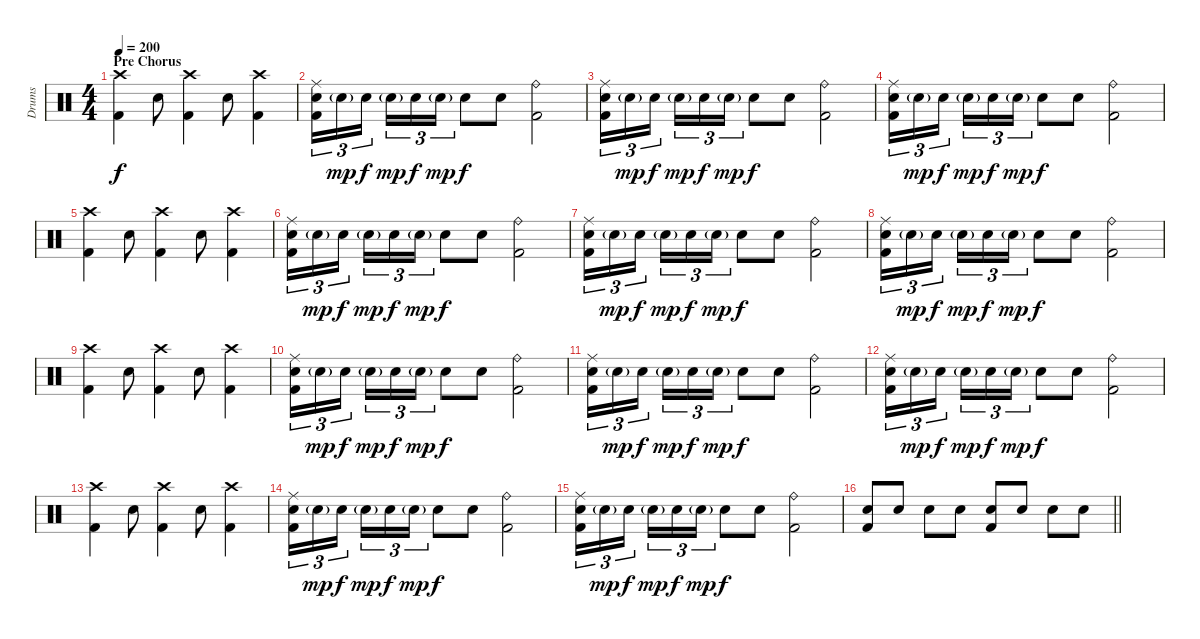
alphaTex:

\track ("Drums" "Drums") {instrument percussion}
\staff {score}
\articulation defaults
\ts (4 4)
\section ("" "Pre Chorus")
\tempo 200
\clef neutral
\ks c
("Crash high (hit)" "Kick (hit) 2").4{dy f} "Electric Snare (hit)".8 ("Crash high (hit)" "Kick (hit) 2").4 "Electric Snare (hit)".8 ("Crash high (hit)" "Kick (hit) 2").4 |
("Ride (middle)" "Electric Snare (hit)" "Kick (hit) 2").16{tu (3 2)} "Electric Snare (hit)"{g}.16{tu (3 2) dy mp} "Electric Snare (hit)".16{tu (3 2) dy f beam splitsecondary} "Electric Snare (hit)"{g}.16{tu (3 2) dy mp} "Electric Snare (hit)".16{tu (3 2) dy f} "Electric Snare (hit)"{g}.16{tu (3 2) dy mp} "Electric Snare (hit)".8{dy f} "Electric Snare (hit)".8 ("Ride (bell)" "Kick (hit) 2").2 |
("Ride (middle)" "Electric Snare (hit)" "Kick (hit) 2").16{tu (3 2)} "Electric Snare (hit)"{g}.16{tu (3 2) dy mp} "Electric Snare (hit)".16{tu (3 2) dy f beam splitsecondary} "Electric Snare (hit)"{g}.16{tu (3 2) dy mp} "Electric Snare (hit)".16{tu (3 2) dy f} "Electric Snare (hit)"{g}.16{tu (3 2) dy mp} "Electric Snare (hit)".8{dy f} "Electric Snare (hit)".8 ("Ride (bell)" "Kick (hit) 2").2 |
("Ride (middle)" "Electric Snare (hit)" "Kick (hit) 2").16{tu (3 2)} "Electric Snare (hit)"{g}.16{tu (3 2) dy mp} "Electric Snare (hit)".16{tu (3 2) dy f beam splitsecondary} "Electric Snare (hit)"{g}.16{tu (3 2) dy mp} "Electric Snare (hit)".16{tu (3 2) dy f} "Electric Snare (hit)"{g}.16{tu (3 2) dy mp} "Electric Snare (hit)".8{dy f} "Electric Snare (hit)".8 ("Ride (bell)" "Kick (hit) 2").2 |
("Crash high (hit)" "Kick (hit) 2").4 "Electric Snare (hit)".8 ("Crash high (hit)" "Kick (hit) 2").4 "Electric Snare (hit)".8 ("Crash high (hit)" "Kick (hit) 2").4 |
("Ride (middle)" "Electric Snare (hit)" "Kick (hit) 2").16{tu (3 2)} "Electric Snare (hit)"{g}.16{tu (3 2) dy mp} "Electric Snare (hit)".16{tu (3 2) dy f beam splitsecondary} "Electric Snare (hit)"{g}.16{tu (3 2) dy mp} "Electric Snare (hit)".16{tu (3 2) dy f} "Electric Snare (hit)"{g}.16{tu (3 2) dy mp} "Electric Snare (hit)".8{dy f} "Electric Snare (hit)".8 ("Ride (bell)" "Kick (hit) 2").2 |
("Ride (middle)" "Electric Snare (hit)" "Kick (hit) 2").16{tu (3 2)} "Electric Snare (hit)"{g}.16{tu (3 2) dy mp} "Electric Snare (hit)".16{tu (3 2) dy f beam splitsecondary} "Electric Snare (hit)"{g}.16{tu (3 2) dy mp} "Electric Snare (hit)".16{tu (3 2) dy f} "Electric Snare (hit)"{g}.16{tu (3 2) dy mp} "Electric Snare (hit)".8{dy f} "Electric Snare (hit)".8 ("Ride (bell)" "Kick (hit) 2").2 |
("Ride (middle)" "Electric Snare (hit)" "Kick (hit) 2").16{tu (3 2)} "Electric Snare (hit)"{g}.16{tu (3 2) dy mp} "Electric Snare (hit)".16{tu (3 2) dy f beam splitsecondary} "Electric Snare (hit)"{g}.16{tu (3 2) dy mp} "Electric Snare (hit)".16{tu (3 2) dy f} "Electric Snare (hit)"{g}.16{tu (3 2) dy mp} "Electric Snare (hit)".8{dy f} "Electric Snare (hit)".8 ("Ride (bell)" "Kick (hit) 2").2 |
("Crash high (hit)" "Kick (hit) 2").4 "Electric Snare (hit)".8 ("Crash high (hit)" "Kick (hit) 2").4 "Electric Snare (hit)".8 ("Crash high (hit)" "Kick (hit) 2").4 |
("Ride (middle)" "Electric Snare (hit)" "Kick (hit) 2").16{tu (3 2)} "Electric Snare (hit)"{g}.16{tu (3 2) dy mp} "Electric Snare (hit)".16{tu (3 2) dy f beam splitsecondary} "Electric Snare (hit)"{g}.16{tu (3 2) dy mp} "Electric Snare (hit)".16{tu (3 2) dy f} "Electric Snare (hit)"{g}.16{tu (3 2) dy mp} "Electric Snare (hit)".8{dy f} "Electric Snare (hit)".8 ("Ride (bell)" "Kick (hit) 2").2 |
("Ride (middle)" "Electric Snare (hit)" "Kick (hit) 2").16{tu (3 2)} "Electric Snare (hit)"{g}.16{tu (3 2) dy mp} "Electric Snare (hit)".16{tu (3 2) dy f beam splitsecondary} "Electric Snare (hit)"{g}.16{tu (3 2) dy mp} "Electric Snare (hit)".16{tu (3 2) dy f} "Electric Snare (hit)"{g}.16{tu (3 2) dy mp} "Electric Snare (hit)".8{dy f} "Electric Snare (hit)".8 ("Ride (bell)" "Kick (hit) 2").2 |
("Ride (middle)" "Electric Snare (hit)" "Kick (hit) 2").16{tu (3 2)} "Electric Snare (hit)"{g}.16{tu (3 2) dy mp} "Electric Snare (hit)".16{tu (3 2) dy f beam splitsecondary} "Electric Snare (hit)"{g}.16{tu (3 2) dy mp} "Electric Snare (hit)".16{tu (3 2) dy f} "Electric Snare (hit)"{g}.16{tu (3 2) dy mp} "Electric Snare (hit)".8{dy f} "Electric Snare (hit)".8 ("Ride (bell)" "Kick (hit) 2").2 |
("Crash high (hit)" "Kick (hit) 2").4 "Electric Snare (hit)".8 ("Crash high (hit)" "Kick (hit) 2").4 "Electric Snare (hit)".8 ("Crash high (hit)" "Kick (hit) 2").4 |
("Ride (middle)" "Electric Snare (hit)" "Kick (hit) 2").16{tu (3 2)} "Electric Snare (hit)"{g}.16{tu (3 2) dy mp} "Electric Snare (hit)".16{tu (3 2) dy f beam splitsecondary} "Electric Snare (hit)"{g}.16{tu (3 2) dy mp} "Electric Snare (hit)".16{tu (3 2) dy f} "Electric Snare (hit)"{g}.16{tu (3 2) dy mp} "Electric Snare (hit)".8{dy f} "Electric Snare (hit)".8 ("Ride (bell)" "Kick (hit) 2").2 |
("Ride (middle)" "Electric Snare (hit)" "Kick (hit) 2").16{tu (3 2)} "Electric Snare (hit)"{g}.16{tu (3 2) dy mp} "Electric Snare (hit)".16{tu (3 2) dy f beam splitsecondary} "Electric Snare (hit)"{g}.16{tu (3 2) dy mp} "Electric Snare (hit)".16{tu (3 2) dy f} "Electric Snare (hit)"{g}.16{tu (3 2) dy mp} "Electric Snare (hit)".8{dy f} "Electric Snare (hit)".8 ("Ride (bell)" "Kick (hit) 2").2 |
\barLineRight lightlight
("Electric Snare (hit)" "Kick (hit) 2").8 "Electric Snare (hit)".8 "Electric Snare (hit)".8 "Electric Snare (hit)".8 ("Electric Snare (hit)" "Kick (hit) 2").8 "Electric Snare (hit)".8 "Electric Snare (hit)".8 "Electric Snare (hit)".8
